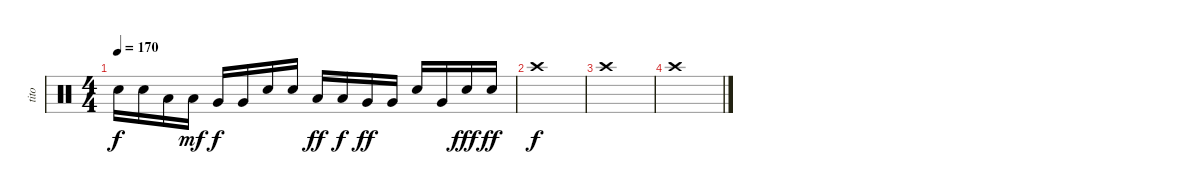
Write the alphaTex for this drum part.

\track ("tito" "tito") {instrument percussion}
\staff {score}
\articulation defaults
\ts (4 4)
\tempo 170
\clef neutral
\ks c "Snare (hit) 2".16{dy f} "Snare (hit) 2".16 "Low Tom (hit)".16 "Low Tom (hit)".16{dy mf} "Very Low Tom (hit)".16{dy f} "Very Low Tom (hit)".16 "Snare (hit) 2".16 "Snare (hit) 2".16 "Low Tom (hit)".16{dy ff} "Low Tom (hit)".16{dy f} "Very Low Tom (hit)".16{dy ff} "Very Low Tom (hit)".16 "Snare (hit) 2".16 "Very Low Tom (hit)".16 "Snare (hit) 2".16{dy fff} "Snare (hit) 2".16{dy ff}
|
"Crash high (hit)".1{dy f} |
"Crash high (hit)".1 |
"Crash high (hit)".1
